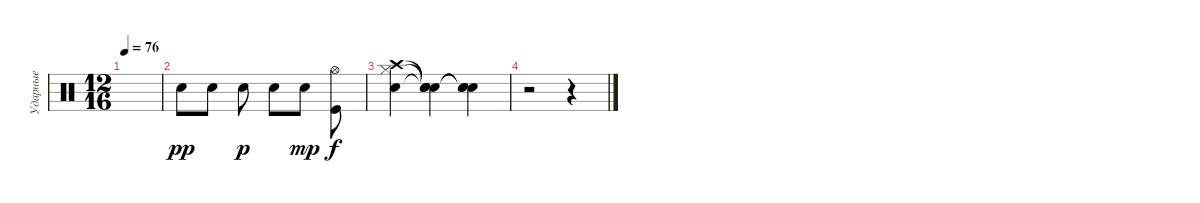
\track ("Ударные" "Ударные") {instrument percussion}
\staff {score}
\articulation defaults
\ts (12 16)
\tempo 76
\clef neutral
\ks c
|
"Electric Snare (hit)".8{dy pp} "Electric Snare (hit)".8 "Electric Snare (hit)".8{dy p} "Electric Snare (hit)".8 "Electric Snare (hit)".8{dy mp} ("Kick (hit)" "Hi-Hat (open)").8{dy f} |
("Snare (hit) 2" "Crash high (hit)" "Hi-Hat (closed)").4 ("Snare (hit)"{t} "Snare (hit)"{t} "Snare (hit)"{t} "Snare (hit)").4 ("Snare (hit)"{t} "Snare (hit)"{t} "Snare (hit)"{t}).4 |
r.2 r.4
